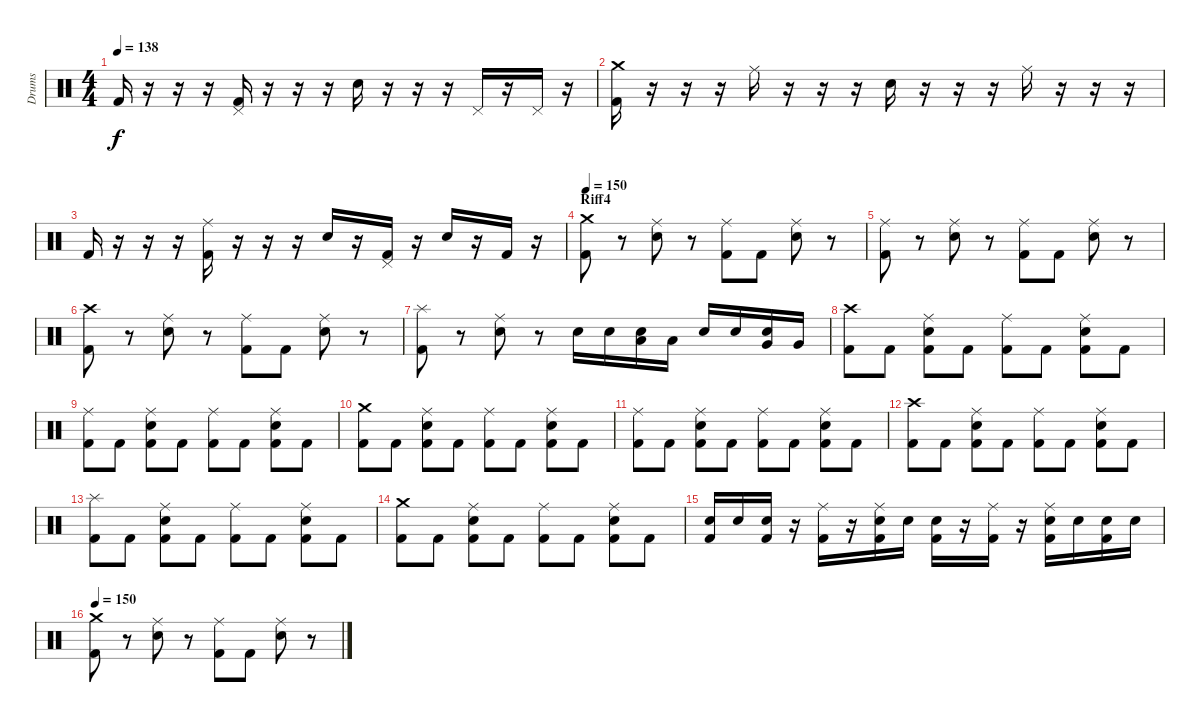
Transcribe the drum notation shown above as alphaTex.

\track ("Drums" "Drums") {instrument percussion}
\staff {score}
\articulation defaults
\ts (4 4)
\tempo 138
\clef neutral
\ks c "Kick (hit) 2".16{dy f}
r.16 r.16 r.16 ("Pedal Hi-Hat (hit)" "Kick (hit) 2").16 r.16 r.16 r.16 "Snare (hit) 2".16 r.16 r.16 r.16 "Pedal Hi-Hat (hit)".16 r.16 "Pedal Hi-Hat (hit)".16 r.16 |
("Crash medium (hit)" "Kick (hit) 2").16 r.16 r.16 r.16 "Ride (middle)".16 r.16 r.16 r.16 "Snare (hit) 2".16 r.16 r.16 r.16 "Ride (middle)".16 r.16 r.16 r.16 |
"Kick (hit) 2".16 r.16 r.16 r.16 ("Ride (middle)" "Kick (hit) 2").16 r.16 r.16 r.16 "Snare (hit) 2".16 r.16 ("Pedal Hi-Hat (hit)" "Kick (hit) 2").16 r.16 "Snare (hit) 2".16 r.16 "Kick (hit) 2".16 r.16 |
\section ("" "Riff4")
\tempo 150
("Crash medium (hit)" "Kick (hit) 2").8 r.8 ("Ride (middle)" "Snare (hit) 2").8 r.8 ("Ride (middle)" "Kick (hit) 2").8 "Kick (hit) 2".8 ("Ride (middle)" "Snare (hit) 2").8 r.8 |
("Ride (middle)" "Kick (hit) 2").8 r.8 ("Ride (middle)" "Snare (hit) 2").8 r.8 ("Ride (middle)" "Kick (hit) 2").8 "Kick (hit) 2".8 ("Ride (middle)" "Snare (hit) 2").8 r.8 |
("Crash high (hit)" "Kick (hit) 2").8 r.8 ("Ride (middle)" "Snare (hit) 2").8 r.8 ("Ride (middle)" "Kick (hit) 2").8 "Kick (hit) 2".8 ("Ride (middle)" "Snare (hit) 2").8 r.8 |
("Splash (hit)" "Kick (hit) 2").8 r.8 ("Ride (middle)" "Snare (hit) 2").8 r.8 "Snare (hit) 2".16 "Snare (hit) 2".16 ("Snare (hit) 2" "Low Tom (hit)").16 "Low Tom (hit)".16 "Snare (hit) 2".16 "Snare (hit) 2".16 ("Snare (hit) 2" "Very Low Tom (hit)").16 "Very Low Tom (hit)".16 |
("Crash high (hit)" "Kick (hit) 2").8 "Kick (hit) 2".8 ("Ride (middle)" "Snare (hit) 2" "Kick (hit) 2").8 "Kick (hit) 2".8 ("Ride (middle)" "Kick (hit) 2").8 "Kick (hit) 2".8 ("Ride (middle)" "Snare (hit) 2" "Kick (hit) 2").8 "Kick (hit) 2".8 |
("Ride (middle)" "Kick (hit) 2").8 "Kick (hit) 2".8 ("Ride (middle)" "Snare (hit) 2" "Kick (hit) 2").8 "Kick (hit) 2".8 ("Ride (middle)" "Kick (hit) 2").8 "Kick (hit) 2".8 ("Ride (middle)" "Snare (hit) 2" "Kick (hit) 2").8 "Kick (hit) 2".8 |
("Crash medium (hit)" "Kick (hit) 2").8 "Kick (hit) 2".8 ("Ride (middle)" "Snare (hit) 2" "Kick (hit) 2").8 "Kick (hit) 2".8 ("Ride (middle)" "Kick (hit) 2").8 "Kick (hit) 2".8 ("Ride (middle)" "Snare (hit) 2" "Kick (hit) 2").8 "Kick (hit) 2".8 |
("Ride (middle)" "Kick (hit) 2").8 "Kick (hit) 2".8 ("Ride (middle)" "Snare (hit) 2" "Kick (hit) 2").8 "Kick (hit) 2".8 ("Ride (middle)" "Kick (hit) 2").8 "Kick (hit) 2".8 ("Ride (middle)" "Snare (hit) 2" "Kick (hit) 2").8 "Kick (hit) 2".8 |
("Crash high (hit)" "Kick (hit) 2").8 "Kick (hit) 2".8 ("Ride (middle)" "Snare (hit) 2" "Kick (hit) 2").8 "Kick (hit) 2".8 ("Ride (middle)" "Kick (hit) 2").8 "Kick (hit) 2".8 ("Ride (middle)" "Snare (hit) 2" "Kick (hit) 2").8 "Kick (hit) 2".8 |
("Splash (hit)" "Kick (hit) 2").8 "Kick (hit) 2".8 ("Ride (middle)" "Snare (hit) 2" "Kick (hit) 2").8 "Kick (hit) 2".8 ("Ride (middle)" "Kick (hit) 2").8 "Kick (hit) 2".8 ("Ride (middle)" "Snare (hit) 2" "Kick (hit) 2").8 "Kick (hit) 2".8 |
("Crash medium (hit)" "Kick (hit) 2").8 "Kick (hit) 2".8 ("Ride (middle)" "Snare (hit) 2" "Kick (hit) 2").8 "Kick (hit) 2".8 ("Ride (middle)" "Kick (hit) 2").8 "Kick (hit) 2".8 ("Ride (middle)" "Snare (hit) 2" "Kick (hit) 2").8 "Kick (hit) 2".8 |
("Snare (hit) 2" "Kick (hit) 2").16 "Snare (hit) 2".16 ("Snare (hit) 2" "Kick (hit) 2").16 r.16 ("Ride (middle)" "Kick (hit) 2").16 r.16 ("Ride (middle)" "Snare (hit) 2" "Kick (hit) 2").16 "Snare (hit) 2".16 ("Snare (hit) 2" "Kick (hit) 2").16 r.16 ("Ride (middle)" "Kick (hit) 2").16 r.16 ("Ride (middle)" "Snare (hit) 2" "Kick (hit) 2").16 "Snare (hit) 2".16 ("Snare (hit) 2" "Kick (hit) 2").16 "Snare (hit) 2".16 |
\tempo 150
("Crash medium (hit)" "Kick (hit) 2").8 r.8 ("Ride (middle)" "Snare (hit) 2").8 r.8 ("Ride (middle)" "Kick (hit) 2").8 "Kick (hit) 2".8 ("Ride (middle)" "Snare (hit) 2").8 r.8
